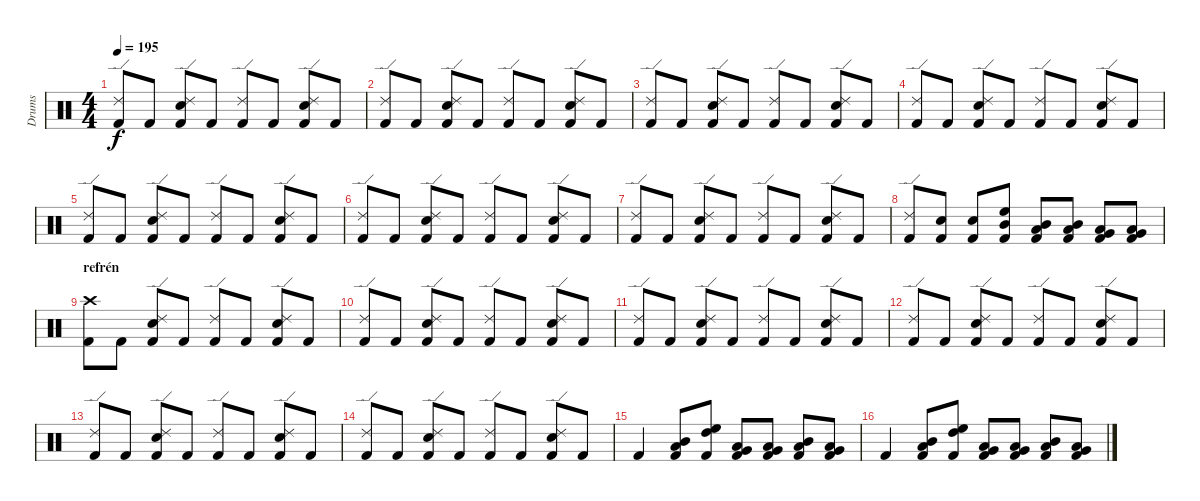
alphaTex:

\track ("Drums" "Drums") {instrument percussion}
\staff {score}
\articulation defaults
\ts (4 4)
\tempo 195
\clef neutral
\ks c
("Ride (edge) 2" "Kick (hit) 2").8{dy f} "Kick (hit) 2".8 ("Ride (edge) 2" "Snare (hit) 2" "Kick (hit) 2").8 "Kick (hit) 2".8 ("Ride (edge) 2" "Kick (hit) 2").8 "Kick (hit) 2".8 ("Ride (edge) 2" "Snare (hit) 2" "Kick (hit) 2").8 "Kick (hit) 2".8 |
("Ride (edge) 2" "Kick (hit) 2").8 "Kick (hit) 2".8 ("Ride (edge) 2" "Snare (hit) 2" "Kick (hit) 2").8 "Kick (hit) 2".8 ("Ride (edge) 2" "Kick (hit) 2").8 "Kick (hit) 2".8 ("Ride (edge) 2" "Snare (hit) 2" "Kick (hit) 2").8 "Kick (hit) 2".8 |
("Ride (edge) 2" "Kick (hit) 2").8 "Kick (hit) 2".8 ("Ride (edge) 2" "Snare (hit) 2" "Kick (hit) 2").8 "Kick (hit) 2".8 ("Ride (edge) 2" "Kick (hit) 2").8 "Kick (hit) 2".8 ("Ride (edge) 2" "Snare (hit) 2" "Kick (hit) 2").8 "Kick (hit) 2".8 |
("Ride (edge) 2" "Kick (hit) 2").8 "Kick (hit) 2".8 ("Ride (edge) 2" "Snare (hit) 2" "Kick (hit) 2").8 "Kick (hit) 2".8 ("Ride (edge) 2" "Kick (hit) 2").8 "Kick (hit) 2".8 ("Ride (edge) 2" "Snare (hit) 2" "Kick (hit) 2").8 "Kick (hit) 2".8 |
("Ride (edge) 2" "Kick (hit) 2").8 "Kick (hit) 2".8 ("Ride (edge) 2" "Snare (hit) 2" "Kick (hit) 2").8 "Kick (hit) 2".8 ("Ride (edge) 2" "Kick (hit) 2").8 "Kick (hit) 2".8 ("Ride (edge) 2" "Snare (hit) 2" "Kick (hit) 2").8 "Kick (hit) 2".8 |
("Ride (edge) 2" "Kick (hit) 2").8 "Kick (hit) 2".8 ("Ride (edge) 2" "Snare (hit) 2" "Kick (hit) 2").8 "Kick (hit) 2".8 ("Ride (edge) 2" "Kick (hit) 2").8 "Kick (hit) 2".8 ("Ride (edge) 2" "Snare (hit) 2" "Kick (hit) 2").8 "Kick (hit) 2".8 |
("Ride (edge) 2" "Kick (hit) 2").8 "Kick (hit) 2".8 ("Ride (edge) 2" "Snare (hit) 2" "Kick (hit) 2").8 "Kick (hit) 2".8 ("Ride (edge) 2" "Kick (hit) 2").8 "Kick (hit) 2".8 ("Ride (edge) 2" "Snare (hit) 2" "Kick (hit) 2").8 "Kick (hit) 2".8 |
("Ride (edge) 2" "Kick (hit) 2").8 ("Snare (hit) 2" "Kick (hit) 2").8 ("Snare (hit) 2" "Kick (hit) 2").8 ("High Floor Tom (hit)" "Mid Tom (hit)" "Kick (hit) 2").8 ("Mid Tom (hit)" "Low Tom (hit)" "Kick (hit) 2").8 ("Mid Tom (hit)" "Low Tom (hit)" "Kick (hit) 2").8 ("Low Tom (hit)" "Very Low Tom (hit)" "Kick (hit) 2").8 ("Low Tom (hit)" "Very Low Tom (hit)" "Kick (hit) 2").8 |
\section ("" "refrén")
("Crash high (hit)" "Kick (hit) 2").8 "Kick (hit) 2".8 ("Ride (edge) 2" "Snare (hit) 2" "Kick (hit) 2").8 "Kick (hit) 2".8 ("Ride (edge) 2" "Kick (hit) 2").8 "Kick (hit) 2".8 ("Ride (edge) 2" "Snare (hit) 2" "Kick (hit) 2").8 "Kick (hit) 2".8 |
("Ride (edge) 2" "Kick (hit) 2").8 "Kick (hit) 2".8 ("Ride (edge) 2" "Snare (hit) 2" "Kick (hit) 2").8 "Kick (hit) 2".8 ("Ride (edge) 2" "Kick (hit) 2").8 "Kick (hit) 2".8 ("Ride (edge) 2" "Snare (hit) 2" "Kick (hit) 2").8 "Kick (hit) 2".8 |
("Ride (edge) 2" "Kick (hit) 2").8 "Kick (hit) 2".8 ("Ride (edge) 2" "Snare (hit) 2" "Kick (hit) 2").8 "Kick (hit) 2".8 ("Ride (edge) 2" "Kick (hit) 2").8 "Kick (hit) 2".8 ("Ride (edge) 2" "Snare (hit) 2" "Kick (hit) 2").8 "Kick (hit) 2".8 |
("Ride (edge) 2" "Kick (hit) 2").8 "Kick (hit) 2".8 ("Ride (edge) 2" "Snare (hit) 2" "Kick (hit) 2").8 "Kick (hit) 2".8 ("Ride (edge) 2" "Kick (hit) 2").8 "Kick (hit) 2".8 ("Ride (edge) 2" "Snare (hit) 2" "Kick (hit) 2").8 "Kick (hit) 2".8 |
("Ride (edge) 2" "Kick (hit) 2").8 "Kick (hit) 2".8 ("Ride (edge) 2" "Snare (hit) 2" "Kick (hit) 2").8 "Kick (hit) 2".8 ("Ride (edge) 2" "Kick (hit) 2").8 "Kick (hit) 2".8 ("Ride (edge) 2" "Snare (hit) 2" "Kick (hit) 2").8 "Kick (hit) 2".8 |
("Ride (edge) 2" "Kick (hit) 2").8 "Kick (hit) 2".8 ("Ride (edge) 2" "Snare (hit) 2" "Kick (hit) 2").8 "Kick (hit) 2".8 ("Ride (edge) 2" "Kick (hit) 2").8 "Kick (hit) 2".8 ("Ride (edge) 2" "Snare (hit) 2" "Kick (hit) 2").8 "Kick (hit) 2".8 |
"Kick (hit) 2".4 ("Mid Tom (hit)" "Low Tom (hit)" "Kick (hit) 2").8 ("High Tom (hit)" "High Floor Tom (hit)" "Kick (hit) 2").8 ("Low Tom (hit)" "Very Low Tom (hit)" "Kick (hit) 2").8 ("Low Tom (hit)" "Very Low Tom (hit)" "Kick (hit) 2").8 ("Mid Tom (hit)" "Low Tom (hit)" "Kick (hit) 2").8 ("Low Tom (hit)" "Very Low Tom (hit)" "Kick (hit) 2").8 |
"Kick (hit) 2".4 ("Mid Tom (hit)" "Low Tom (hit)" "Kick (hit) 2").8 ("High Tom (hit)" "High Floor Tom (hit)" "Kick (hit) 2").8 ("Low Tom (hit)" "Very Low Tom (hit)" "Kick (hit) 2").8 ("Low Tom (hit)" "Very Low Tom (hit)" "Kick (hit) 2").8 ("Mid Tom (hit)" "Low Tom (hit)" "Kick (hit) 2").8 ("Low Tom (hit)" "Very Low Tom (hit)" "Kick (hit) 2").8
